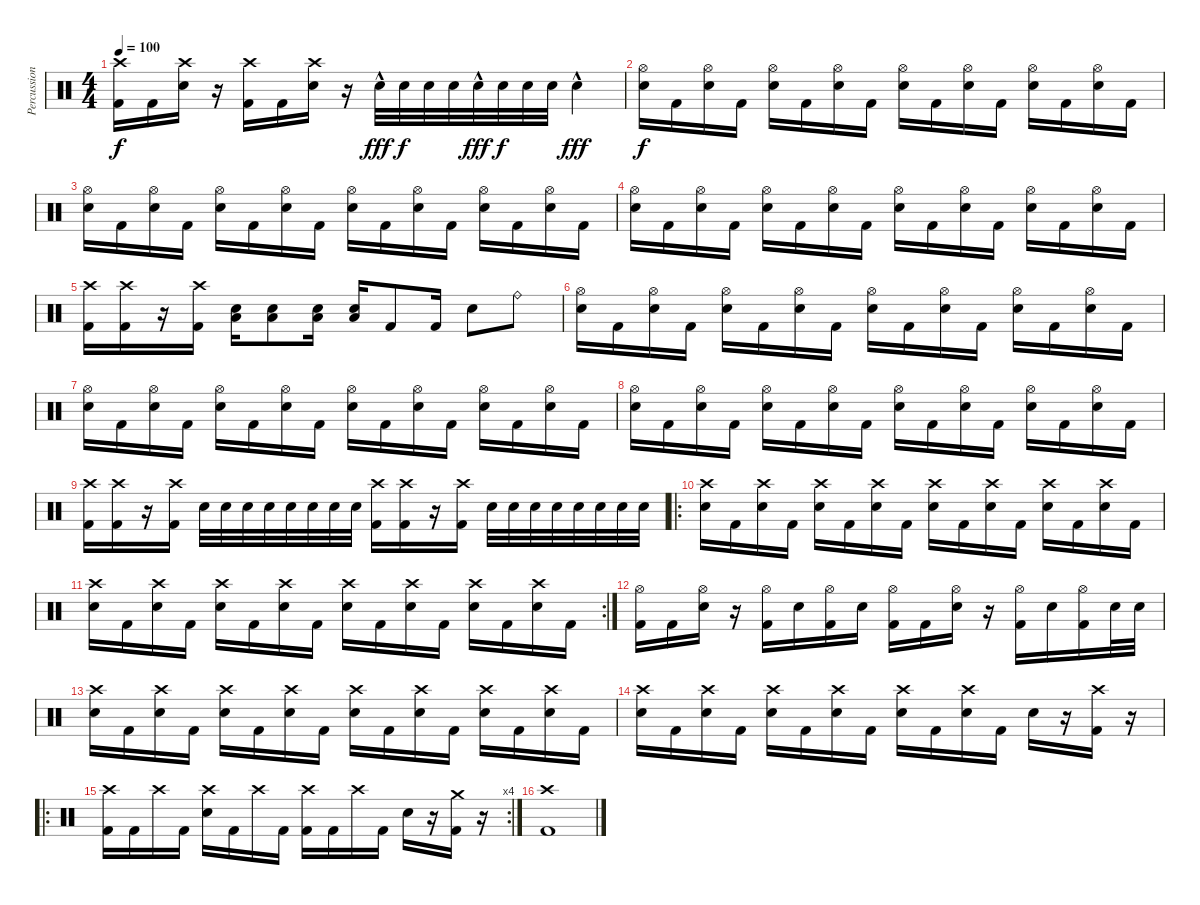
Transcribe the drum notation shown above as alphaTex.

\track ("Percussion" "Percussion") {instrument percussion}
\staff {score}
\articulation defaults
\ts (4 4)
\tempo 100
\clef neutral
\ks c
("Crash high (hit)" "Kick (hit) 2").16{dy f} "Kick (hit) 2".16 ("Crash high (hit)" "Snare (hit) 2").16 r.16 ("Crash high (hit)" "Kick (hit) 2").16 "Kick (hit) 2".16 ("Crash high (hit)" "Snare (hit) 2").16 r.16 "Snare (hit) 2"{hac}.32{dy fff} "Snare (hit) 2".32{dy f} "Snare (hit) 2".32 "Snare (hit) 2".32 "Snare (hit) 2"{hac}.32{dy fff} "Snare (hit) 2".32{dy f} "Snare (hit) 2".32 "Snare (hit) 2".32 "Snare (hit) 2"{hac}.4{dy fff} |
("Hi-Hat (open)" "Snare (hit) 2").16{dy f} "Kick (hit) 2".16 ("Hi-Hat (open)" "Snare (hit) 2").16 "Kick (hit) 2".16 ("Hi-Hat (open)" "Snare (hit) 2").16 "Kick (hit) 2".16 ("Hi-Hat (open)" "Snare (hit) 2").16 "Kick (hit) 2".16 ("Hi-Hat (open)" "Snare (hit) 2").16 "Kick (hit) 2".16 ("Hi-Hat (open)" "Snare (hit) 2").16 "Kick (hit) 2".16 ("Hi-Hat (open)" "Snare (hit) 2").16 "Kick (hit) 2".16 ("Hi-Hat (open)" "Snare (hit) 2").16 "Kick (hit) 2".16 |
("Hi-Hat (open)" "Snare (hit) 2").16 "Kick (hit) 2".16 ("Hi-Hat (open)" "Snare (hit) 2").16 "Kick (hit) 2".16 ("Hi-Hat (open)" "Snare (hit) 2").16 "Kick (hit) 2".16 ("Hi-Hat (open)" "Snare (hit) 2").16 "Kick (hit) 2".16 ("Hi-Hat (open)" "Snare (hit) 2").16 "Kick (hit) 2".16 ("Hi-Hat (open)" "Snare (hit) 2").16 "Kick (hit) 2".16 ("Hi-Hat (open)" "Snare (hit) 2").16 "Kick (hit) 2".16 ("Hi-Hat (open)" "Snare (hit) 2").16 "Kick (hit) 2".16 |
("Hi-Hat (open)" "Snare (hit) 2").16 "Kick (hit) 2".16 ("Hi-Hat (open)" "Snare (hit) 2").16 "Kick (hit) 2".16 ("Hi-Hat (open)" "Snare (hit) 2").16 "Kick (hit) 2".16 ("Hi-Hat (open)" "Snare (hit) 2").16 "Kick (hit) 2".16 ("Hi-Hat (open)" "Snare (hit) 2").16 "Kick (hit) 2".16 ("Hi-Hat (open)" "Snare (hit) 2").16 "Kick (hit) 2".16 ("Hi-Hat (open)" "Snare (hit) 2").16 "Kick (hit) 2".16 ("Hi-Hat (open)" "Snare (hit) 2").16 "Kick (hit) 2".16 |
("Crash high (hit)" "Kick (hit) 2").16 ("Crash high (hit)" "Kick (hit) 2").16 r.16 ("Crash high (hit)" "Kick (hit) 2").16 ("Snare (hit) 2" "Low Tom (hit)").16 ("Snare (hit) 2" "Low Tom (hit)").8 ("Snare (hit) 2" "Low Tom (hit)").16 ("Low Tom (hit)" "Snare (hit) 2").16 "Kick (hit) 2".8 "Kick (hit) 2".16 "Snare (hit) 2".8 "Ride (bell)".8 |
("Hi-Hat (open)" "Snare (hit) 2").16 "Kick (hit) 2".16 ("Hi-Hat (open)" "Snare (hit) 2").16 "Kick (hit) 2".16 ("Hi-Hat (open)" "Snare (hit) 2").16 "Kick (hit) 2".16 ("Hi-Hat (open)" "Snare (hit) 2").16 "Kick (hit) 2".16 ("Hi-Hat (open)" "Snare (hit) 2").16 "Kick (hit) 2".16 ("Hi-Hat (open)" "Snare (hit) 2").16 "Kick (hit) 2".16 ("Hi-Hat (open)" "Snare (hit) 2").16 "Kick (hit) 2".16 ("Hi-Hat (open)" "Snare (hit) 2").16 "Kick (hit) 2".16 |
("Hi-Hat (open)" "Snare (hit) 2").16 "Kick (hit) 2".16 ("Hi-Hat (open)" "Snare (hit) 2").16 "Kick (hit) 2".16 ("Hi-Hat (open)" "Snare (hit) 2").16 "Kick (hit) 2".16 ("Hi-Hat (open)" "Snare (hit) 2").16 "Kick (hit) 2".16 ("Hi-Hat (open)" "Snare (hit) 2").16 "Kick (hit) 2".16 ("Hi-Hat (open)" "Snare (hit) 2").16 "Kick (hit) 2".16 ("Hi-Hat (open)" "Snare (hit) 2").16 "Kick (hit) 2".16 ("Hi-Hat (open)" "Snare (hit) 2").16 "Kick (hit) 2".16 |
("Hi-Hat (open)" "Snare (hit) 2").16 "Kick (hit) 2".16 ("Hi-Hat (open)" "Snare (hit) 2").16 "Kick (hit) 2".16 ("Hi-Hat (open)" "Snare (hit) 2").16 "Kick (hit) 2".16 ("Hi-Hat (open)" "Snare (hit) 2").16 "Kick (hit) 2".16 ("Hi-Hat (open)" "Snare (hit) 2").16 "Kick (hit) 2".16 ("Hi-Hat (open)" "Snare (hit) 2").16 "Kick (hit) 2".16 ("Hi-Hat (open)" "Snare (hit) 2").16 "Kick (hit) 2".16 ("Hi-Hat (open)" "Snare (hit) 2").16 "Kick (hit) 2".16 |
("Crash high (hit)" "Kick (hit) 2").16 ("Crash high (hit)" "Kick (hit) 2").16 r.16 ("Crash high (hit)" "Kick (hit) 2").16 "Snare (hit) 2".32 "Snare (hit) 2".32 "Snare (hit) 2".32 "Snare (hit) 2".32 "Snare (hit) 2".32 "Snare (hit) 2".32 "Snare (hit) 2".32 "Snare (hit) 2".32 ("Crash high (hit)" "Kick (hit) 2").16 ("Crash high (hit)" "Kick (hit) 2").16 r.16 ("Crash high (hit)" "Kick (hit) 2").16 "Snare (hit) 2".32 "Snare (hit) 2".32 "Snare (hit) 2".32 "Snare (hit) 2".32 "Snare (hit) 2".32 "Snare (hit) 2".32 "Snare (hit) 2".32 "Snare (hit) 2".32 |
\ro
("Crash high (hit)" "Snare (hit) 2").16 "Kick (hit) 2".16 ("Crash high (hit)" "Snare (hit) 2").16 "Kick (hit) 2".16 ("Crash high (hit)" "Snare (hit) 2").16 "Kick (hit) 2".16 ("Crash high (hit)" "Snare (hit) 2").16 "Kick (hit) 2".16 ("Crash high (hit)" "Snare (hit) 2").16 "Kick (hit) 2".16 ("Crash high (hit)" "Snare (hit) 2").16 "Kick (hit) 2".16 ("Crash high (hit)" "Snare (hit) 2").16 "Kick (hit) 2".16 ("Crash high (hit)" "Snare (hit) 2").16 "Kick (hit) 2".16 |
\rc 2
("Crash high (hit)" "Snare (hit) 2").16 "Kick (hit) 2".16 ("Crash high (hit)" "Snare (hit) 2").16 "Kick (hit) 2".16 ("Crash high (hit)" "Snare (hit) 2").16 "Kick (hit) 2".16 ("Crash high (hit)" "Snare (hit) 2").16 "Kick (hit) 2".16 ("Crash high (hit)" "Snare (hit) 2").16 "Kick (hit) 2".16 ("Crash high (hit)" "Snare (hit) 2").16 "Kick (hit) 2".16 ("Crash high (hit)" "Snare (hit) 2").16 "Kick (hit) 2".16 ("Crash high (hit)" "Snare (hit) 2").16 "Kick (hit) 2".16 |
("Hi-Hat (open)" "Kick (hit) 2").16 "Kick (hit) 2".16 ("Hi-Hat (open)" "Snare (hit) 2").16 r.16 ("Hi-Hat (open)" "Kick (hit) 2").16 "Snare (hit) 2".16 ("Hi-Hat (open)" "Kick (hit) 2").16 "Snare (hit) 2".16 ("Hi-Hat (open)" "Kick (hit) 2").16 "Kick (hit) 2".16 ("Hi-Hat (open)" "Snare (hit) 2").16 r.16 ("Hi-Hat (open)" "Kick (hit) 2").16 "Snare (hit) 2".16 ("Hi-Hat (open)" "Kick (hit) 2").16 "Snare (hit) 2".32 "Snare (hit) 2".32 |
("Crash high (hit)" "Snare (hit) 2").16 "Kick (hit) 2".16 ("Crash high (hit)" "Snare (hit) 2").16 "Kick (hit) 2".16 ("Crash high (hit)" "Snare (hit) 2").16 "Kick (hit) 2".16 ("Crash high (hit)" "Snare (hit) 2").16 "Kick (hit) 2".16 ("Crash high (hit)" "Snare (hit) 2").16 "Kick (hit) 2".16 ("Crash high (hit)" "Snare (hit) 2").16 "Kick (hit) 2".16 ("Crash high (hit)" "Snare (hit) 2").16 "Kick (hit) 2".16 ("Crash high (hit)" "Snare (hit) 2").16 "Kick (hit) 2".16 |
("Crash high (hit)" "Snare (hit) 2").16 "Kick (hit) 2".16 ("Crash high (hit)" "Snare (hit) 2").16 "Kick (hit) 2".16 ("Crash high (hit)" "Snare (hit) 2").16 "Kick (hit) 2".16 ("Crash high (hit)" "Snare (hit) 2").16 "Kick (hit) 2".16 ("Crash high (hit)" "Snare (hit) 2").16 "Kick (hit) 2".16 ("Crash high (hit)" "Snare (hit) 2").16 "Kick (hit) 2".16 "Snare (hit) 2".16 r.16 ("Crash high (hit)" "Kick (hit) 2").16 r.16 |
\ro
\rc 4
("Crash high (hit)" "Kick (hit) 2").16 "Kick (hit) 2".16 "Crash high (hit)".16 "Kick (hit) 2".16 ("Crash high (hit)" "Snare (hit) 2").16 "Kick (hit) 2".16 "Crash high (hit)".16 "Kick (hit) 2".16 ("Crash high (hit)" "Kick (hit) 2").16 "Kick (hit) 2".16 "Crash high (hit)".16 "Kick (hit) 2".16 "Snare (hit) 2".16 r.16 ("Crash medium (hit)" "Kick (hit) 2").16 r.16 |
("Crash high (hit)" "Kick (hit) 2").1
